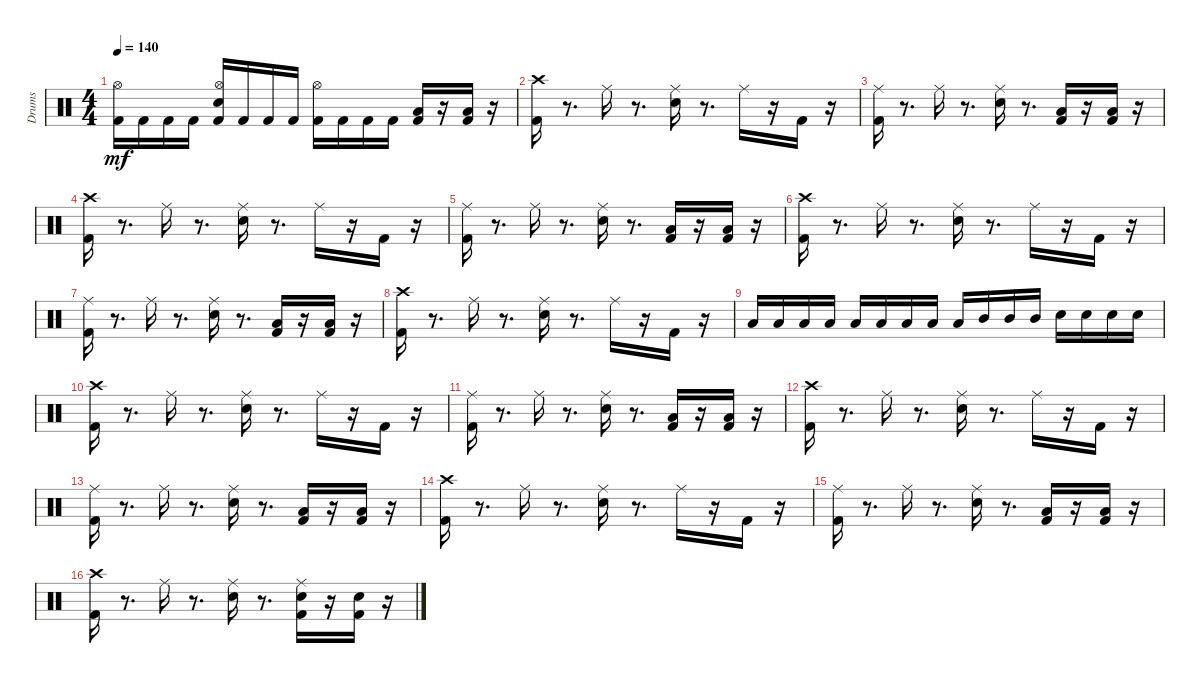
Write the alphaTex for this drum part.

\track ("Drums               " "Drums     ") {instrument percussion}
\staff {score}
\articulation defaults
\ts (4 4)
\tempo 140
\clef neutral
\ks c
("Kick (hit) 2" "Hi-Hat (open)").16{dy mf} "Kick (hit) 2".16 "Kick (hit) 2".16 "Kick (hit) 2".16 ("Kick (hit) 2" "Snare (hit) 2" "Hi-Hat (open)").16 "Kick (hit) 2".16 "Kick (hit) 2".16 "Kick (hit) 2".16 ("Kick (hit) 2" "Hi-Hat (open)").16 "Kick (hit) 2".16 "Kick (hit) 2".16 "Kick (hit) 2".16 ("Kick (hit) 2" "Low Floor Tom (hit)").16 r.16 ("Kick (hit) 2" "Low Floor Tom (hit)").16 r.16 |
("Crash high (hit)" "Kick (hit) 2").16 r.8{d} "Ride (middle)".16 r.8{d} ("Snare (hit) 2" "Ride (middle)").16 r.8{d} "Ride (middle)".16 r.16 "Kick (hit) 2".16 r.16 |
("Kick (hit) 2" "Ride (middle)").16 r.8{d} "Ride (middle)".16 r.8{d} ("Snare (hit) 2" "Ride (middle)").16 r.8{d} ("Kick (hit) 2" "Low Floor Tom (hit)").16 r.16 ("Kick (hit) 2" "Low Floor Tom (hit)").16 r.16 |
("Crash high (hit)" "Kick (hit) 2").16 r.8{d} "Ride (middle)".16 r.8{d} ("Snare (hit) 2" "Ride (middle)").16 r.8{d} "Ride (middle)".16 r.16 "Kick (hit) 2".16 r.16 |
("Kick (hit) 2" "Ride (middle)").16 r.8{d} "Ride (middle)".16 r.8{d} ("Snare (hit) 2" "Ride (middle)").16 r.8{d} ("Kick (hit) 2" "Low Floor Tom (hit)").16 r.16 ("Kick (hit) 2" "Low Floor Tom (hit)").16 r.16 |
("Crash high (hit)" "Kick (hit) 2").16 r.8{d} "Ride (middle)".16 r.8{d} ("Snare (hit) 2" "Ride (middle)").16 r.8{d} "Ride (middle)".16 r.16 "Kick (hit) 2".16 r.16 |
("Kick (hit) 2" "Ride (middle)").16 r.8{d} "Ride (middle)".16 r.8{d} ("Snare (hit) 2" "Ride (middle)").16 r.8{d} ("Kick (hit) 2" "Low Floor Tom (hit)").16 r.16 ("Kick (hit) 2" "Low Floor Tom (hit)").16 r.16 |
("Crash high (hit)" "Kick (hit) 2").16 r.8{d} "Ride (middle)".16 r.8{d} ("Snare (hit) 2" "Ride (middle)").16 r.8{d} "Ride (middle)".16 r.16 "Kick (hit) 2".16 r.16 |
"Low Floor Tom (hit)".16 "Low Floor Tom (hit)".16 "Low Floor Tom (hit)".16 "Low Floor Tom (hit)".16 "Low Tom (hit)".16 "Low Tom (hit)".16 "Low Tom (hit)".16 "Low Floor Tom (hit)".16 "Low Floor Tom (hit)".16 "Mid Tom (hit)".16 "Mid Tom (hit)".16 "Mid Tom (hit)".16 "Snare (hit) 2".16 "Snare (hit) 2".16 "Snare (hit) 2".16 "Snare (hit) 2".16 |
("Crash high (hit)" "Kick (hit) 2").16 r.8{d} "Ride (middle)".16 r.8{d} ("Snare (hit) 2" "Ride (middle)").16 r.8{d} "Ride (middle)".16 r.16 "Kick (hit) 2".16 r.16 |
("Kick (hit) 2" "Ride (middle)").16 r.8{d} "Ride (middle)".16 r.8{d} ("Snare (hit) 2" "Ride (middle)").16 r.8{d} ("Kick (hit) 2" "Low Floor Tom (hit)").16 r.16 ("Kick (hit) 2" "Low Floor Tom (hit)").16 r.16 |
("Crash high (hit)" "Kick (hit) 2").16 r.8{d} "Ride (middle)".16 r.8{d} ("Snare (hit) 2" "Ride (middle)").16 r.8{d} "Ride (middle)".16 r.16 "Kick (hit) 2".16 r.16 |
("Kick (hit) 2" "Ride (middle)").16 r.8{d} "Ride (middle)".16 r.8{d} ("Snare (hit) 2" "Ride (middle)").16 r.8{d} ("Kick (hit) 2" "Low Floor Tom (hit)").16 r.16 ("Kick (hit) 2" "Low Floor Tom (hit)").16 r.16 |
("Crash high (hit)" "Kick (hit) 2").16 r.8{d} "Ride (middle)".16 r.8{d} ("Snare (hit) 2" "Ride (middle)").16 r.8{d} "Ride (middle)".16 r.16 "Kick (hit) 2".16 r.16 |
("Kick (hit) 2" "Ride (middle)").16 r.8{d} "Ride (middle)".16 r.8{d} ("Snare (hit) 2" "Ride (middle)").16 r.8{d} ("Kick (hit) 2" "Low Floor Tom (hit)").16 r.16 ("Kick (hit) 2" "Low Floor Tom (hit)").16 r.16 |
("Crash high (hit)" "Kick (hit) 2").16 r.8{d} "Ride (middle)".16 r.8{d} ("Snare (hit) 2" "Ride (middle)").16 r.8{d} ("Ride (middle)" "Kick (hit) 2" "Snare (hit) 2").16 r.16 ("Kick (hit) 2" "Snare (hit) 2").16 r.16
